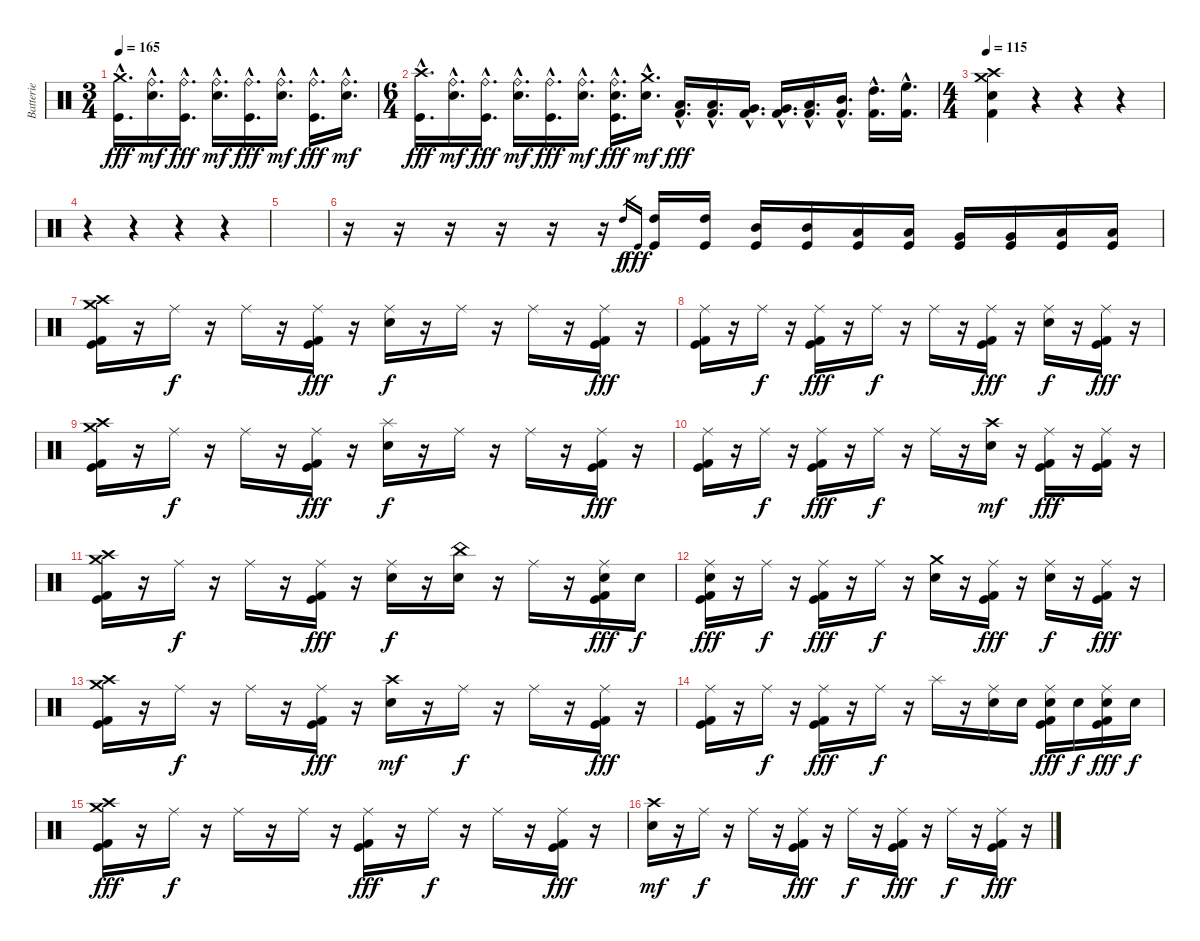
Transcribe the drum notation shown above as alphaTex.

\track ("Batterie" "Batterie") {instrument percussion}
\staff {score}
\articulation defaults
\ts (3 4)
\tempo 165
\clef neutral
\ks c
("Crash medium (hit)"{hac} "Kick (hit)"{hac}).16{d dy fff} ("Ride (bell)"{hac} "Electric Snare (hit)"{hac}).16{d dy mf} ("Ride (bell)"{hac} "Kick (hit)"{hac}).16{d dy fff} ("Ride (bell)"{hac} "Electric Snare (hit)"{hac}).16{d dy mf} ("Ride (bell)"{hac} "Kick (hit)"{hac}).16{d dy fff} ("Ride (bell)"{hac} "Electric Snare (hit)"{hac}).16{d dy mf} ("Ride (bell)"{hac} "Kick (hit)"{hac}).16{d dy fff} ("Ride (bell)"{hac} "Electric Snare (hit)"{hac}).16{d dy mf} |
\ts (6 4)
("Crash high (hit)"{hac} "Kick (hit)"{hac}).16{d dy fff} ("Ride (bell)"{hac} "Electric Snare (hit)"{hac}).16{d dy mf} ("Ride (bell)"{hac} "Kick (hit)"{hac}).16{d dy fff} ("Ride (bell)"{hac} "Electric Snare (hit)"{hac}).16{d dy mf} ("Ride (bell)"{hac} "Kick (hit)"{hac}).16{d dy fff} ("Ride (bell)"{hac} "Electric Snare (hit)"{hac}).16{d dy mf} ("Ride (bell)"{hac} "Electric Snare (hit)"{hac} "Kick (hit)"{hac}).16{d dy fff} ("Crash medium (hit)"{hac} "Electric Snare (hit)"{hac}).16{d dy mf} ("Low Floor Tom (hit)"{hac} "Kick (hit) 2"{hac}).16{d dy fff} ("Low Floor Tom (hit)"{hac} "Kick (hit) 2"{hac}).16{d} ("Very Low Tom (hit)"{hac} "Kick (hit) 2"{hac}).16{d} ("Very Low Tom (hit)"{hac} "Kick (hit) 2"{hac}).16{d} ("Low Tom (hit)"{hac} "Kick (hit) 2"{hac}).16{d} ("Mid Tom (hit)"{hac} "Kick (hit) 2"{hac}).16{d} ("High Tom (hit)"{hac} "Kick (hit) 2"{hac}).16{d} ("High Floor Tom (hit)"{hac} "Kick (hit) 2"{hac}).16{d} |
\ts (4 4)
\tempo 115
("Crash medium (hit)" "Crash high (hit)" "Electric Snare (hit)" "Kick (hit) 2").4 r.4 r.4 r.4 |
r.4 r.4 r.4 r.4 |
|
r.16 r.16 r.16 r.16 r.16 r.16 "High Tom (hit)".16{gr dy f} "Kick (hit)".16{gr dy fff} ("High Tom (hit)" "Kick (hit)").16 ("High Tom (hit)" "Kick (hit)").16 ("Mid Tom (hit)" "Kick (hit)").16 ("Mid Tom (hit)" "Kick (hit)").16 ("Low Tom (hit)" "Kick (hit)").16 ("Low Tom (hit)" "Kick (hit)").16 ("Very Low Tom (hit)" "Kick (hit)").16 ("Very Low Tom (hit)" "Kick (hit)").16 ("Low Floor Tom (hit)" "Kick (hit)").16 ("Low Floor Tom (hit)" "Kick (hit)").16 |
("Crash medium (hit)" "Crash high (hit)" "Kick (hit) 2" "Kick (hit)").16 r.16 "Ride (middle)".16{dy f} r.16 "Ride (middle)".16 r.16 ("Ride (middle)" "Kick (hit) 2" "Kick (hit)").16{dy fff} r.16 ("Ride (middle)" "Electric Snare (hit)").16{dy f} r.16 "Ride (middle)".16 r.16 "Ride (middle)".16 r.16 ("Ride (middle)" "Kick (hit)" "Kick (hit) 2").16{dy fff} r.16 |
("Ride (middle)" "Kick (hit)" "Kick (hit) 2").16 r.16 "Ride (middle)".16{dy f} r.16 ("Ride (middle)" "Kick (hit)" "Kick (hit) 2").16{dy fff} r.16 "Ride (middle)".16{dy f} r.16 "Ride (middle)".16 r.16 ("Ride (middle)" "Kick (hit)" "Kick (hit) 2").16{dy fff} r.16 ("Ride (middle)" "Electric Snare (hit)").16{dy f} r.16 ("Ride (middle)" "Kick (hit)" "Kick (hit) 2").16{dy fff} r.16 |
("Crash medium (hit)" "Crash high (hit)" "Kick (hit) 2" "Kick (hit)").16 r.16 "Ride (middle)".16{dy f} r.16 "Ride (middle)".16 r.16 ("Ride (middle)" "Kick (hit) 2" "Kick (hit)").16{dy fff} r.16 ("Splash (hit)" "Electric Snare (hit)").16{dy f} r.16 "Ride (middle)".16 r.16 "Ride (middle)".16 r.16 ("Ride (middle)" "Kick (hit)" "Kick (hit) 2").16{dy fff} r.16 |
("Ride (middle)" "Kick (hit)" "Kick (hit) 2").16 r.16 "Ride (middle)".16{dy f} r.16 ("Ride (middle)" "Kick (hit)" "Kick (hit) 2").16{dy fff} r.16 "Ride (middle)".16{dy f} r.16 "Ride (middle)".16 r.16 ("Crash high (hit)" "Electric Snare (hit)").16{dy mf} r.16 ("Ride (middle)" "Kick (hit)" "Kick (hit) 2").16{dy fff} r.16 ("Ride (middle)" "Kick (hit)" "Kick (hit) 2").16 r.16 |
("Crash medium (hit)" "Crash high (hit)" "Kick (hit) 2" "Kick (hit)").16 r.16 "Ride (middle)".16{dy f} r.16 "Ride (middle)".16 r.16 ("Ride (middle)" "Kick (hit) 2" "Kick (hit)").16{dy fff} r.16 ("Ride (middle)" "Electric Snare (hit)").16{dy f} r.16 ("China (hit)" "Electric Snare (hit)").16 r.16 "Ride (middle)".16 r.16 ("Ride (middle)" "Electric Snare (hit)" "Kick (hit)" "Kick (hit) 2").16{dy fff} "Electric Snare (hit)".16{dy f} |
("Ride (middle)" "Electric Snare (hit)" "Kick (hit)" "Kick (hit) 2").16{dy fff} r.16 "Ride (middle)".16{dy f} r.16 ("Ride (middle)" "Kick (hit)" "Kick (hit) 2").16{dy fff} r.16 "Ride (middle)".16{dy f} r.16 ("Crash medium (hit)" "Electric Snare (hit)").16 r.16 ("Ride (middle)" "Kick (hit)" "Kick (hit) 2").16{dy fff} r.16 ("Ride (middle)" "Electric Snare (hit)").16{dy f} r.16 ("Ride (middle)" "Kick (hit)" "Kick (hit) 2").16{dy fff} r.16 |
("Crash medium (hit)" "Crash high (hit)" "Kick (hit) 2" "Kick (hit)").16 r.16 "Ride (middle)".16{dy f} r.16 "Ride (middle)".16 r.16 ("Ride (middle)" "Kick (hit) 2" "Kick (hit)").16{dy fff} r.16 ("Crash high (hit)" "Electric Snare (hit)").16{dy mf} r.16 "Ride (middle)".16{dy f} r.16 "Ride (middle)".16 r.16 ("Ride (middle)" "Kick (hit)" "Kick (hit) 2").16{dy fff} r.16 |
("Ride (middle)" "Kick (hit)" "Kick (hit) 2").16 r.16 "Ride (middle)".16{dy f} r.16 ("Ride (middle)" "Kick (hit)" "Kick (hit) 2").16{dy fff} r.16 "Ride (middle)".16{dy f} r.16 "Splash (hit)".16 r.16 ("Ride (middle)" "Electric Snare (hit)").16 "Electric Snare (hit)".16 ("Ride (middle)" "Electric Snare (hit)" "Kick (hit)" "Kick (hit) 2").16{dy fff} "Electric Snare (hit)".16{dy f} ("Ride (middle)" "Electric Snare (hit)" "Kick (hit)" "Kick (hit) 2").16{dy fff} "Electric Snare (hit)".16{dy f} |
("Crash medium (hit)" "Crash high (hit)" "Kick (hit)" "Kick (hit) 2").16{dy fff} r.16 "Ride (middle)".16{dy f} r.16 "Ride (middle)".16 r.16 "Ride (middle)".16 r.16 ("Ride (middle)" "Kick (hit)" "Kick (hit) 2").16{dy fff} r.16 "Ride (middle)".16{dy f} r.16 "Ride (middle)".16 r.16 ("Ride (middle)" "Kick (hit)" "Kick (hit) 2").16{dy fff} r.16 |
("Crash high (hit)" "Electric Snare (hit)").16{dy mf} r.16 "Ride (middle)".16{dy f} r.16 "Ride (middle)".16 r.16 ("Ride (middle)" "Kick (hit)" "Kick (hit) 2").16{dy fff} r.16 "Ride (middle)".16{dy f} r.16 ("Ride (middle)" "Kick (hit)" "Kick (hit) 2").16{dy fff} r.16 "Ride (middle)".16{dy f} r.16 ("Ride (middle)" "Kick (hit)" "Kick (hit) 2").16{dy fff} r.16
